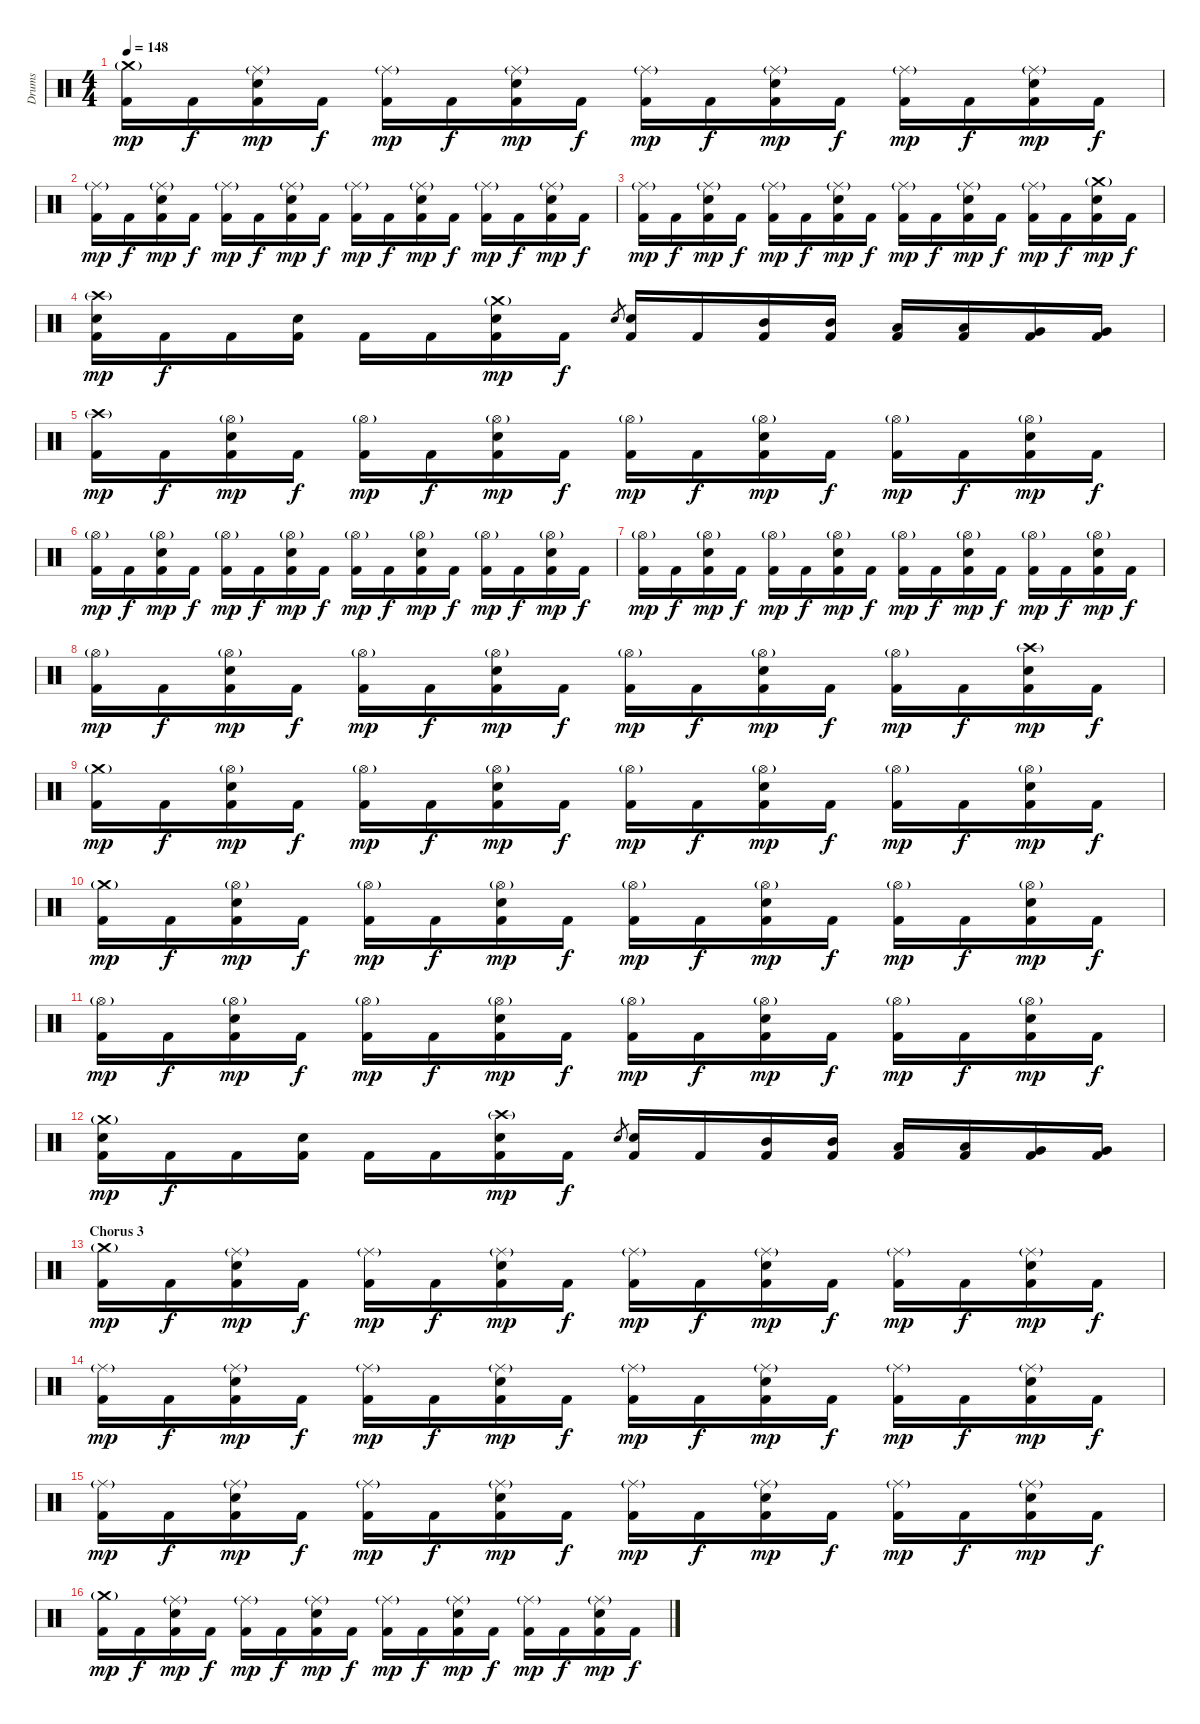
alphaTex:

\track ("Drums" "Drums") {instrument percussion}
\staff {score}
\articulation defaults
\ts (4 4)
\tempo 148
\clef neutral
\ks c
("Crash medium (hit)"{g} "Kick (hit) 2").16{dy mp} "Kick (hit) 2".16{dy f} ("Ride (middle)"{g} "Snare (hit) 2" "Kick (hit) 2").16{dy mp} "Kick (hit) 2".16{dy f} ("Ride (middle)"{g} "Kick (hit) 2").16{dy mp} "Kick (hit) 2".16{dy f} ("Ride (middle)"{g} "Snare (hit) 2" "Kick (hit) 2").16{dy mp} "Kick (hit) 2".16{dy f} ("Ride (middle)"{g} "Kick (hit) 2").16{dy mp} "Kick (hit) 2".16{dy f} ("Ride (middle)"{g} "Snare (hit) 2" "Kick (hit) 2").16{dy mp} "Kick (hit) 2".16{dy f} ("Ride (middle)"{g} "Kick (hit) 2").16{dy mp} "Kick (hit) 2".16{dy f} ("Ride (middle)"{g} "Snare (hit) 2" "Kick (hit) 2").16{dy mp} "Kick (hit) 2".16{dy f} |
("Ride (middle)"{g} "Kick (hit) 2").16{dy mp} "Kick (hit) 2".16{dy f} ("Ride (middle)"{g} "Snare (hit) 2" "Kick (hit) 2").16{dy mp} "Kick (hit) 2".16{dy f} ("Ride (middle)"{g} "Kick (hit) 2").16{dy mp} "Kick (hit) 2".16{dy f} ("Ride (middle)"{g} "Snare (hit) 2" "Kick (hit) 2").16{dy mp} "Kick (hit) 2".16{dy f} ("Ride (middle)"{g} "Kick (hit) 2").16{dy mp} "Kick (hit) 2".16{dy f} ("Ride (middle)"{g} "Snare (hit) 2" "Kick (hit) 2").16{dy mp} "Kick (hit) 2".16{dy f} ("Ride (middle)"{g} "Kick (hit) 2").16{dy mp} "Kick (hit) 2".16{dy f} ("Ride (middle)"{g} "Snare (hit) 2" "Kick (hit) 2").16{dy mp} "Kick (hit) 2".16{dy f} |
("Ride (middle)"{g} "Kick (hit) 2").16{dy mp} "Kick (hit) 2".16{dy f} ("Ride (middle)"{g} "Snare (hit) 2" "Kick (hit) 2").16{dy mp} "Kick (hit) 2".16{dy f} ("Ride (middle)"{g} "Kick (hit) 2").16{dy mp} "Kick (hit) 2".16{dy f} ("Ride (middle)"{g} "Snare (hit) 2" "Kick (hit) 2").16{dy mp} "Kick (hit) 2".16{dy f} ("Ride (middle)"{g} "Kick (hit) 2").16{dy mp} "Kick (hit) 2".16{dy f} ("Ride (middle)"{g} "Snare (hit) 2" "Kick (hit) 2").16{dy mp} "Kick (hit) 2".16{dy f} ("Ride (middle)"{g} "Kick (hit) 2").16{dy mp} "Kick (hit) 2".16{dy f} ("Crash medium (hit)"{g} "Snare (hit) 2" "Kick (hit) 2").16{dy mp} "Kick (hit) 2".16{dy f} |
("Crash high (hit)"{g} "Snare (hit) 2" "Kick (hit) 2").16{dy mp} "Kick (hit) 2".16{dy f} "Kick (hit) 2".16 ("Snare (hit) 2" "Kick (hit) 2").16 "Kick (hit) 2".16 "Kick (hit) 2".16 ("Crash medium (hit)"{g} "Snare (hit) 2" "Kick (hit) 2").16{dy mp} "Kick (hit) 2".16{dy f} "Snare (hit) 2".8{gr} ("Snare (hit) 2" "Kick (hit) 2").16 "Kick (hit) 2".16 ("Mid Tom (hit)" "Kick (hit) 2").16 ("Mid Tom (hit)" "Kick (hit) 2").16 ("Low Tom (hit)" "Kick (hit) 2").16 ("Low Tom (hit)" "Kick (hit) 2").16 ("Very Low Tom (hit)" "Kick (hit) 2").16 ("Very Low Tom (hit)" "Kick (hit) 2").16 |
("Crash high (hit)"{g} "Kick (hit) 2").16{dy mp} "Kick (hit) 2".16{dy f} ("Hi-Hat (open)"{g} "Snare (hit) 2" "Kick (hit) 2").16{dy mp} "Kick (hit) 2".16{dy f} ("Hi-Hat (open)"{g} "Kick (hit) 2").16{dy mp} "Kick (hit) 2".16{dy f} ("Hi-Hat (open)"{g} "Snare (hit) 2" "Kick (hit) 2").16{dy mp} "Kick (hit) 2".16{dy f} ("Hi-Hat (open)"{g} "Kick (hit) 2").16{dy mp} "Kick (hit) 2".16{dy f} ("Hi-Hat (open)"{g} "Snare (hit) 2" "Kick (hit) 2").16{dy mp} "Kick (hit) 2".16{dy f} ("Hi-Hat (open)"{g} "Kick (hit) 2").16{dy mp} "Kick (hit) 2".16{dy f} ("Hi-Hat (open)"{g} "Snare (hit) 2" "Kick (hit) 2").16{dy mp} "Kick (hit) 2".16{dy f} |
("Hi-Hat (open)"{g} "Kick (hit) 2").16{dy mp} "Kick (hit) 2".16{dy f} ("Hi-Hat (open)"{g} "Snare (hit) 2" "Kick (hit) 2").16{dy mp} "Kick (hit) 2".16{dy f} ("Hi-Hat (open)"{g} "Kick (hit) 2").16{dy mp} "Kick (hit) 2".16{dy f} ("Hi-Hat (open)"{g} "Snare (hit) 2" "Kick (hit) 2").16{dy mp} "Kick (hit) 2".16{dy f} ("Hi-Hat (open)"{g} "Kick (hit) 2").16{dy mp} "Kick (hit) 2".16{dy f} ("Hi-Hat (open)"{g} "Snare (hit) 2" "Kick (hit) 2").16{dy mp} "Kick (hit) 2".16{dy f} ("Hi-Hat (open)"{g} "Kick (hit) 2").16{dy mp} "Kick (hit) 2".16{dy f} ("Hi-Hat (open)"{g} "Snare (hit) 2" "Kick (hit) 2").16{dy mp} "Kick (hit) 2".16{dy f} |
("Hi-Hat (open)"{g} "Kick (hit) 2").16{dy mp} "Kick (hit) 2".16{dy f} ("Hi-Hat (open)"{g} "Snare (hit) 2" "Kick (hit) 2").16{dy mp} "Kick (hit) 2".16{dy f} ("Hi-Hat (open)"{g} "Kick (hit) 2").16{dy mp} "Kick (hit) 2".16{dy f} ("Hi-Hat (open)"{g} "Snare (hit) 2" "Kick (hit) 2").16{dy mp} "Kick (hit) 2".16{dy f} ("Hi-Hat (open)"{g} "Kick (hit) 2").16{dy mp} "Kick (hit) 2".16{dy f} ("Hi-Hat (open)"{g} "Snare (hit) 2" "Kick (hit) 2").16{dy mp} "Kick (hit) 2".16{dy f} ("Hi-Hat (open)"{g} "Kick (hit) 2").16{dy mp} "Kick (hit) 2".16{dy f} ("Hi-Hat (open)"{g} "Snare (hit) 2" "Kick (hit) 2").16{dy mp} "Kick (hit) 2".16{dy f} |
("Hi-Hat (open)"{g} "Kick (hit) 2").16{dy mp} "Kick (hit) 2".16{dy f} ("Hi-Hat (open)"{g} "Snare (hit) 2" "Kick (hit) 2").16{dy mp} "Kick (hit) 2".16{dy f} ("Hi-Hat (open)"{g} "Kick (hit) 2").16{dy mp} "Kick (hit) 2".16{dy f} ("Hi-Hat (open)"{g} "Snare (hit) 2" "Kick (hit) 2").16{dy mp} "Kick (hit) 2".16{dy f} ("Hi-Hat (open)"{g} "Kick (hit) 2").16{dy mp} "Kick (hit) 2".16{dy f} ("Hi-Hat (open)"{g} "Snare (hit) 2" "Kick (hit) 2").16{dy mp} "Kick (hit) 2".16{dy f} ("Hi-Hat (open)"{g} "Kick (hit) 2").16{dy mp} "Kick (hit) 2".16{dy f} ("Crash high (hit)"{g} "Snare (hit) 2" "Kick (hit) 2").16{dy mp} "Kick (hit) 2".16{dy f} |
("Crash medium (hit)"{g} "Kick (hit) 2").16{dy mp} "Kick (hit) 2".16{dy f} ("Hi-Hat (open)"{g} "Snare (hit) 2" "Kick (hit) 2").16{dy mp} "Kick (hit) 2".16{dy f} ("Hi-Hat (open)"{g} "Kick (hit) 2").16{dy mp} "Kick (hit) 2".16{dy f} ("Hi-Hat (open)"{g} "Snare (hit) 2" "Kick (hit) 2").16{dy mp} "Kick (hit) 2".16{dy f} ("Hi-Hat (open)"{g} "Kick (hit) 2").16{dy mp} "Kick (hit) 2".16{dy f} ("Hi-Hat (open)"{g} "Snare (hit) 2" "Kick (hit) 2").16{dy mp} "Kick (hit) 2".16{dy f} ("Hi-Hat (open)"{g} "Kick (hit) 2").16{dy mp} "Kick (hit) 2".16{dy f} ("Hi-Hat (open)"{g} "Snare (hit) 2" "Kick (hit) 2").16{dy mp} "Kick (hit) 2".16{dy f} |
("Crash medium (hit)"{g} "Kick (hit) 2").16{dy mp} "Kick (hit) 2".16{dy f} ("Hi-Hat (open)"{g} "Snare (hit) 2" "Kick (hit) 2").16{dy mp} "Kick (hit) 2".16{dy f} ("Hi-Hat (open)"{g} "Kick (hit) 2").16{dy mp} "Kick (hit) 2".16{dy f} ("Hi-Hat (open)"{g} "Snare (hit) 2" "Kick (hit) 2").16{dy mp} "Kick (hit) 2".16{dy f} ("Hi-Hat (open)"{g} "Kick (hit) 2").16{dy mp} "Kick (hit) 2".16{dy f} ("Hi-Hat (open)"{g} "Snare (hit) 2" "Kick (hit) 2").16{dy mp} "Kick (hit) 2".16{dy f} ("Hi-Hat (open)"{g} "Kick (hit) 2").16{dy mp} "Kick (hit) 2".16{dy f} ("Hi-Hat (open)"{g} "Snare (hit) 2" "Kick (hit) 2").16{dy mp} "Kick (hit) 2".16{dy f} |
("Hi-Hat (open)"{g} "Kick (hit) 2").16{dy mp} "Kick (hit) 2".16{dy f} ("Hi-Hat (open)"{g} "Snare (hit) 2" "Kick (hit) 2").16{dy mp} "Kick (hit) 2".16{dy f} ("Hi-Hat (open)"{g} "Kick (hit) 2").16{dy mp} "Kick (hit) 2".16{dy f} ("Hi-Hat (open)"{g} "Snare (hit) 2" "Kick (hit) 2").16{dy mp} "Kick (hit) 2".16{dy f} ("Hi-Hat (open)"{g} "Kick (hit) 2").16{dy mp} "Kick (hit) 2".16{dy f} ("Hi-Hat (open)"{g} "Snare (hit) 2" "Kick (hit) 2").16{dy mp} "Kick (hit) 2".16{dy f} ("Hi-Hat (open)"{g} "Kick (hit) 2").16{dy mp} "Kick (hit) 2".16{dy f} ("Hi-Hat (open)"{g} "Snare (hit) 2" "Kick (hit) 2").16{dy mp} "Kick (hit) 2".16{dy f} |
("Crash medium (hit)"{g} "Snare (hit) 2" "Kick (hit) 2").16{dy mp} "Kick (hit) 2".16{dy f} "Kick (hit) 2".16 ("Snare (hit) 2" "Kick (hit) 2").16 "Kick (hit) 2".16 "Kick (hit) 2".16 ("Crash high (hit)"{g} "Snare (hit) 2" "Kick (hit) 2").16{dy mp} "Kick (hit) 2".16{dy f} "Snare (hit) 2".8{gr} ("Snare (hit) 2" "Kick (hit) 2").16 "Kick (hit) 2".16 ("Mid Tom (hit)" "Kick (hit) 2").16 ("Mid Tom (hit)" "Kick (hit) 2").16 ("Low Tom (hit)" "Kick (hit) 2").16 ("Low Tom (hit)" "Kick (hit) 2").16 ("Very Low Tom (hit)" "Kick (hit) 2").16 ("Very Low Tom (hit)" "Kick (hit) 2").16 |
\section ("" "Chorus 3")
("Crash medium (hit)"{g} "Kick (hit) 2").16{dy mp} "Kick (hit) 2".16{dy f} ("Ride (middle)"{g} "Snare (hit) 2" "Kick (hit) 2").16{dy mp} "Kick (hit) 2".16{dy f} ("Ride (middle)"{g} "Kick (hit) 2").16{dy mp} "Kick (hit) 2".16{dy f} ("Ride (middle)"{g} "Snare (hit) 2" "Kick (hit) 2").16{dy mp} "Kick (hit) 2".16{dy f} ("Ride (middle)"{g} "Kick (hit) 2").16{dy mp} "Kick (hit) 2".16{dy f} ("Ride (middle)"{g} "Snare (hit) 2" "Kick (hit) 2").16{dy mp} "Kick (hit) 2".16{dy f} ("Ride (middle)"{g} "Kick (hit) 2").16{dy mp} "Kick (hit) 2".16{dy f} ("Ride (middle)"{g} "Snare (hit) 2" "Kick (hit) 2").16{dy mp} "Kick (hit) 2".16{dy f} |
("Ride (middle)"{g} "Kick (hit) 2").16{dy mp} "Kick (hit) 2".16{dy f} ("Ride (middle)"{g} "Snare (hit) 2" "Kick (hit) 2").16{dy mp} "Kick (hit) 2".16{dy f} ("Ride (middle)"{g} "Kick (hit) 2").16{dy mp} "Kick (hit) 2".16{dy f} ("Ride (middle)"{g} "Snare (hit) 2" "Kick (hit) 2").16{dy mp} "Kick (hit) 2".16{dy f} ("Ride (middle)"{g} "Kick (hit) 2").16{dy mp} "Kick (hit) 2".16{dy f} ("Ride (middle)"{g} "Snare (hit) 2" "Kick (hit) 2").16{dy mp} "Kick (hit) 2".16{dy f} ("Ride (middle)"{g} "Kick (hit) 2").16{dy mp} "Kick (hit) 2".16{dy f} ("Ride (middle)"{g} "Snare (hit) 2" "Kick (hit) 2").16{dy mp} "Kick (hit) 2".16{dy f} |
("Ride (middle)"{g} "Kick (hit) 2").16{dy mp} "Kick (hit) 2".16{dy f} ("Ride (middle)"{g} "Snare (hit) 2" "Kick (hit) 2").16{dy mp} "Kick (hit) 2".16{dy f} ("Ride (middle)"{g} "Kick (hit) 2").16{dy mp} "Kick (hit) 2".16{dy f} ("Ride (middle)"{g} "Snare (hit) 2" "Kick (hit) 2").16{dy mp} "Kick (hit) 2".16{dy f} ("Ride (middle)"{g} "Kick (hit) 2").16{dy mp} "Kick (hit) 2".16{dy f} ("Ride (middle)"{g} "Snare (hit) 2" "Kick (hit) 2").16{dy mp} "Kick (hit) 2".16{dy f} ("Ride (middle)"{g} "Kick (hit) 2").16{dy mp} "Kick (hit) 2".16{dy f} ("Ride (middle)"{g} "Snare (hit) 2" "Kick (hit) 2").16{dy mp} "Kick (hit) 2".16{dy f} |
("Crash medium (hit)"{g} "Kick (hit) 2").16{dy mp} "Kick (hit) 2".16{dy f} ("Ride (middle)"{g} "Snare (hit) 2" "Kick (hit) 2").16{dy mp} "Kick (hit) 2".16{dy f} ("Ride (middle)"{g} "Kick (hit) 2").16{dy mp} "Kick (hit) 2".16{dy f} ("Ride (middle)"{g} "Snare (hit) 2" "Kick (hit) 2").16{dy mp} "Kick (hit) 2".16{dy f} ("Ride (middle)"{g} "Kick (hit) 2").16{dy mp} "Kick (hit) 2".16{dy f} ("Ride (middle)"{g} "Snare (hit) 2" "Kick (hit) 2").16{dy mp} "Kick (hit) 2".16{dy f} ("Ride (middle)"{g} "Kick (hit) 2").16{dy mp} "Kick (hit) 2".16{dy f} ("Ride (middle)"{g} "Snare (hit) 2" "Kick (hit) 2").16{dy mp} "Kick (hit) 2".16{dy f}
